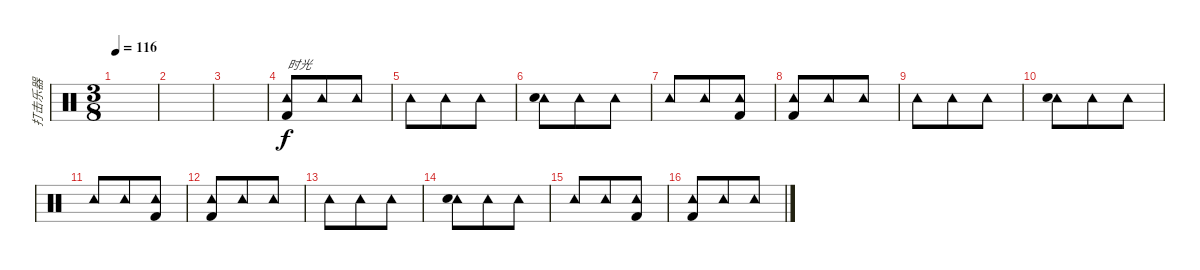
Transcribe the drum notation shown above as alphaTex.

\track ("打击乐器" "打击乐器") {instrument percussion}
\staff {score}
\articulation defaults
\ts (3 8)
\tempo 116
\clef neutral
\ks c
|
|
|
("Tambourine (hit)" "Kick (hit) 2").8{txt "时光"} "Tambourine (hit)".8 "Tambourine (hit)".8 |
"Tambourine (hit)".8 "Tambourine (hit)".8 "Tambourine (hit)".8 |
("Tambourine (hit)" "Snare (hit) 2").8 "Tambourine (hit)".8 "Tambourine (hit)".8 |
"Tambourine (hit)".8 "Tambourine (hit)".8 ("Tambourine (hit)" "Kick (hit) 2").8 |
("Tambourine (hit)" "Kick (hit) 2").8 "Tambourine (hit)".8 "Tambourine (hit)".8 |
"Tambourine (hit)".8 "Tambourine (hit)".8 "Tambourine (hit)".8 |
("Tambourine (hit)" "Snare (hit) 2").8 "Tambourine (hit)".8 "Tambourine (hit)".8 |
"Tambourine (hit)".8 "Tambourine (hit)".8 ("Tambourine (hit)" "Kick (hit) 2").8 |
("Tambourine (hit)" "Kick (hit) 2").8 "Tambourine (hit)".8 "Tambourine (hit)".8 |
"Tambourine (hit)".8 "Tambourine (hit)".8 "Tambourine (hit)".8 |
("Tambourine (hit)" "Snare (hit) 2").8 "Tambourine (hit)".8 "Tambourine (hit)".8 |
"Tambourine (hit)".8 "Tambourine (hit)".8 ("Tambourine (hit)" "Kick (hit) 2").8 |
("Tambourine (hit)" "Kick (hit) 2").8 "Tambourine (hit)".8 "Tambourine (hit)".8
